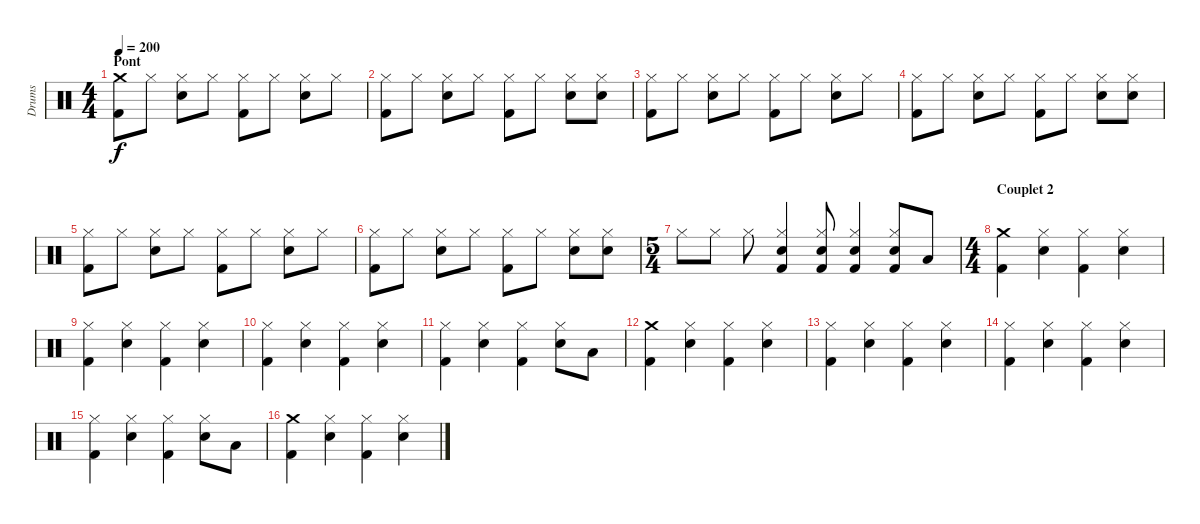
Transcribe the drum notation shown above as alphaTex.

\track ("Drums" "Drums") {instrument percussion}
\staff {score}
\articulation defaults
\ts (4 4)
\section ("" "Pont")
\tempo 200
\clef neutral
\ks c
("Crash medium (hit)" "Kick (hit) 2").8{dy f} "Hi-Hat (closed)".8 ("Hi-Hat (closed)" "Snare (hit) 2").8 "Hi-Hat (closed)".8 ("Hi-Hat (closed)" "Kick (hit) 2").8 "Hi-Hat (closed)".8 ("Hi-Hat (closed)" "Snare (hit) 2").8 "Hi-Hat (closed)".8 |
("Hi-Hat (closed)" "Kick (hit) 2").8 "Hi-Hat (closed)".8 ("Hi-Hat (closed)" "Snare (hit) 2").8 "Hi-Hat (closed)".8 ("Hi-Hat (closed)" "Kick (hit) 2").8 "Hi-Hat (closed)".8 ("Hi-Hat (closed)" "Snare (hit) 2").8 ("Hi-Hat (closed)" "Snare (hit) 2").8 |
("Hi-Hat (closed)" "Kick (hit) 2").8 "Hi-Hat (closed)".8 ("Hi-Hat (closed)" "Snare (hit) 2").8 "Hi-Hat (closed)".8 ("Hi-Hat (closed)" "Kick (hit) 2").8 "Hi-Hat (closed)".8 ("Hi-Hat (closed)" "Snare (hit) 2").8 "Hi-Hat (closed)".8 |
("Hi-Hat (closed)" "Kick (hit) 2").8 "Hi-Hat (closed)".8 ("Hi-Hat (closed)" "Snare (hit) 2").8 "Hi-Hat (closed)".8 ("Hi-Hat (closed)" "Kick (hit) 2").8 "Hi-Hat (closed)".8 ("Hi-Hat (closed)" "Snare (hit) 2").8 ("Hi-Hat (closed)" "Snare (hit) 2").8 |
("Hi-Hat (closed)" "Kick (hit) 2").8 "Hi-Hat (closed)".8 ("Hi-Hat (closed)" "Snare (hit) 2").8 "Hi-Hat (closed)".8 ("Hi-Hat (closed)" "Kick (hit) 2").8 "Hi-Hat (closed)".8 ("Hi-Hat (closed)" "Snare (hit) 2").8 "Hi-Hat (closed)".8 |
("Hi-Hat (closed)" "Kick (hit) 2").8 "Hi-Hat (closed)".8 ("Hi-Hat (closed)" "Snare (hit) 2").8 "Hi-Hat (closed)".8 ("Hi-Hat (closed)" "Kick (hit) 2").8 "Hi-Hat (closed)".8 ("Hi-Hat (closed)" "Snare (hit) 2").8 ("Hi-Hat (closed)" "Snare (hit) 2").8 |
\ts (5 4)
"Hi-Hat (closed)".8 "Hi-Hat (closed)".8 "Hi-Hat (closed)".8 ("Hi-Hat (closed)" "Snare (hit) 2" "Kick (hit) 2").4 ("Hi-Hat (closed)" "Snare (hit) 2" "Kick (hit) 2").8 ("Hi-Hat (closed)" "Snare (hit) 2" "Kick (hit) 2").4 ("Hi-Hat (closed)" "Snare (hit) 2" "Kick (hit) 2").8 "Low Floor Tom (hit)".8 |
\ts (4 4)
\section ("" "Couplet 2")
("Crash medium (hit)" "Kick (hit) 2").4 ("Hi-Hat (closed)" "Snare (hit) 2").4 ("Hi-Hat (closed)" "Kick (hit) 2").4 ("Hi-Hat (closed)" "Snare (hit) 2").4 |
("Hi-Hat (closed)" "Kick (hit) 2").4 ("Hi-Hat (closed)" "Snare (hit) 2").4 ("Hi-Hat (closed)" "Kick (hit) 2").4 ("Hi-Hat (closed)" "Snare (hit) 2").4 |
("Hi-Hat (closed)" "Kick (hit) 2").4 ("Hi-Hat (closed)" "Snare (hit) 2").4 ("Hi-Hat (closed)" "Kick (hit) 2").4 ("Hi-Hat (closed)" "Snare (hit) 2").4 |
("Hi-Hat (closed)" "Kick (hit) 2").4 ("Hi-Hat (closed)" "Snare (hit) 2").4 ("Hi-Hat (closed)" "Kick (hit) 2").4 ("Hi-Hat (closed)" "Snare (hit) 2").8 "Low Floor Tom (hit)".8 |
("Crash medium (hit)" "Kick (hit) 2").4 ("Hi-Hat (closed)" "Snare (hit) 2").4 ("Hi-Hat (closed)" "Kick (hit) 2").4 ("Hi-Hat (closed)" "Snare (hit) 2").4 |
("Hi-Hat (closed)" "Kick (hit) 2").4 ("Hi-Hat (closed)" "Snare (hit) 2").4 ("Hi-Hat (closed)" "Kick (hit) 2").4 ("Hi-Hat (closed)" "Snare (hit) 2").4 |
("Hi-Hat (closed)" "Kick (hit) 2").4 ("Hi-Hat (closed)" "Snare (hit) 2").4 ("Hi-Hat (closed)" "Kick (hit) 2").4 ("Hi-Hat (closed)" "Snare (hit) 2").4 |
("Hi-Hat (closed)" "Kick (hit) 2").4 ("Hi-Hat (closed)" "Snare (hit) 2").4 ("Hi-Hat (closed)" "Kick (hit) 2").4 ("Hi-Hat (closed)" "Snare (hit) 2").8 "Low Floor Tom (hit)".8 |
("Crash medium (hit)" "Kick (hit) 2").4 ("Hi-Hat (closed)" "Snare (hit) 2").4 ("Hi-Hat (closed)" "Kick (hit) 2").4 ("Hi-Hat (closed)" "Snare (hit) 2").4
